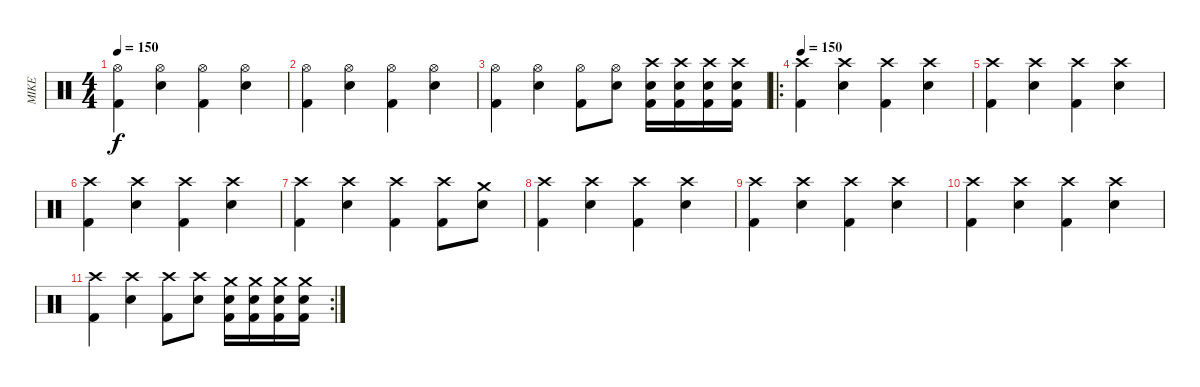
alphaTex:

\track ("MIKE" "MIKE") {instrument percussion}
\staff {score}
\articulation defaults
\ts (4 4)
\tempo 150
\clef neutral
\ks c
("Hi-Hat (open)" "Kick (hit) 2").4{dy f} ("Hi-Hat (open)" "Electric Snare (hit)").4 ("Hi-Hat (open)" "Kick (hit) 2").4 ("Hi-Hat (open)" "Electric Snare (hit)").4 |
("Hi-Hat (open)" "Kick (hit) 2").4 ("Hi-Hat (open)" "Electric Snare (hit)").4 ("Hi-Hat (open)" "Kick (hit) 2").4 ("Hi-Hat (open)" "Electric Snare (hit)").4 |
("Hi-Hat (open)" "Kick (hit) 2").4 ("Hi-Hat (open)" "Electric Snare (hit)").4 ("Hi-Hat (open)" "Kick (hit) 2").8 ("Hi-Hat (open)" "Electric Snare (hit)").8 ("Kick (hit) 2" "Crash high (hit)" "Electric Snare (hit)").16 ("Kick (hit) 2" "Crash high (hit)" "Electric Snare (hit)").16 ("Kick (hit) 2" "Crash high (hit)" "Electric Snare (hit)").16 ("Kick (hit) 2" "Crash high (hit)" "Electric Snare (hit)").16 |
\ro
\tempo 150
("Crash high (hit)" "Kick (hit) 2").4 ("Crash high (hit)" "Electric Snare (hit)").4 ("Crash high (hit)" "Kick (hit) 2").4 ("Crash high (hit)" "Electric Snare (hit)").4 |
("Crash high (hit)" "Kick (hit) 2").4 ("Crash high (hit)" "Electric Snare (hit)").4 ("Crash high (hit)" "Kick (hit) 2").4 ("Crash high (hit)" "Electric Snare (hit)").4 |
("Crash high (hit)" "Kick (hit) 2").4 ("Crash high (hit)" "Electric Snare (hit)").4 ("Crash high (hit)" "Kick (hit) 2").4 ("Crash high (hit)" "Electric Snare (hit)").4 |
("Crash high (hit)" "Kick (hit) 2").4 ("Crash high (hit)" "Electric Snare (hit)").4 ("Crash high (hit)" "Kick (hit) 2").4 ("Crash high (hit)" "Kick (hit) 2").8 ("Crash medium (hit)" "Electric Snare (hit)").8 |
("Crash high (hit)" "Kick (hit) 2").4 ("Crash high (hit)" "Electric Snare (hit)").4 ("Crash high (hit)" "Kick (hit) 2").4 ("Crash high (hit)" "Electric Snare (hit)").4 |
("Crash high (hit)" "Kick (hit) 2").4 ("Crash high (hit)" "Electric Snare (hit)").4 ("Crash high (hit)" "Kick (hit) 2").4 ("Crash high (hit)" "Electric Snare (hit)").4 |
("Crash high (hit)" "Kick (hit) 2").4 ("Crash high (hit)" "Electric Snare (hit)").4 ("Crash high (hit)" "Kick (hit) 2").4 ("Crash high (hit)" "Electric Snare (hit)").4 |
\rc 2
("Crash high (hit)" "Kick (hit) 2").4 ("Crash high (hit)" "Electric Snare (hit)").4 ("Crash high (hit)" "Kick (hit) 2").8 ("Crash high (hit)" "Electric Snare (hit)").8 ("Kick (hit) 2" "Crash medium (hit)" "Electric Snare (hit)").16 ("Kick (hit) 2" "Crash medium (hit)" "Electric Snare (hit)").16 ("Kick (hit) 2" "Crash medium (hit)" "Electric Snare (hit)").16 ("Kick (hit) 2" "Crash medium (hit)" "Electric Snare (hit)").16
